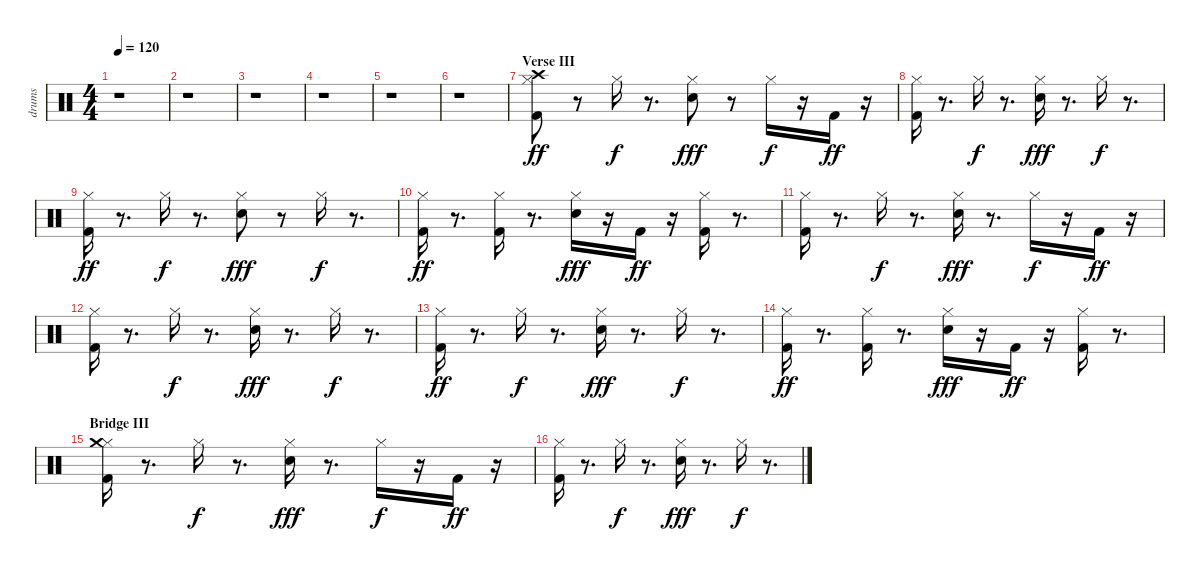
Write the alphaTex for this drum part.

\track ("drums" "drums") {instrument percussion}
\staff {score}
\articulation defaults
\ts (4 4)
\tempo 120
\clef neutral
\ks c
r.1{dy ff} |
r.1 |
r.1 |
r.1 |
r.1 |
r.1 |
\section ("" "Verse III")
("Kick (hit) 2" "Hi-Hat (closed)" "Crash high (hit)").8 r.8 "Hi-Hat (closed)".16{dy f} r.8{d} ("Snare (hit) 2" "Hi-Hat (closed)").8{dy fff} r.8 "Hi-Hat (closed)".16{dy f} r.16 "Kick (hit) 2".16{dy ff} r.16 |
("Kick (hit) 2" "Hi-Hat (closed)").16 r.8{d} "Hi-Hat (closed)".16{dy f} r.8{d} ("Snare (hit) 2" "Hi-Hat (closed)").16{dy fff} r.8{d} "Hi-Hat (closed)".16{dy f} r.8{d} |
("Kick (hit) 2" "Hi-Hat (closed)").16{dy ff} r.8{d} "Hi-Hat (closed)".16{dy f} r.8{d} ("Snare (hit) 2" "Hi-Hat (closed)").8{dy fff} r.8 "Hi-Hat (closed)".16{dy f} r.8{d} |
("Kick (hit) 2" "Hi-Hat (closed)").16{dy ff} r.8{d} ("Kick (hit) 2" "Hi-Hat (closed)").16 r.8{d} ("Snare (hit) 2" "Hi-Hat (closed)").16{dy fff} r.16 "Kick (hit) 2".16{dy ff} r.16 ("Kick (hit) 2" "Hi-Hat (closed)").16 r.8{d} |
("Kick (hit) 2" "Hi-Hat (closed)").16 r.8{d} "Hi-Hat (closed)".16{dy f} r.8{d} ("Snare (hit) 2" "Hi-Hat (closed)").16{dy fff} r.8{d} "Hi-Hat (closed)".16{dy f} r.16 "Kick (hit) 2".16{dy ff} r.16 |
("Kick (hit) 2" "Hi-Hat (closed)").16 r.8{d} "Hi-Hat (closed)".16{dy f} r.8{d} ("Snare (hit) 2" "Hi-Hat (closed)").16{dy fff} r.8{d} "Hi-Hat (closed)".16{dy f} r.8{d} |
("Kick (hit) 2" "Hi-Hat (closed)").16{dy ff} r.8{d} "Hi-Hat (closed)".16{dy f} r.8{d} ("Snare (hit) 2" "Hi-Hat (closed)").16{dy fff} r.8{d} "Hi-Hat (closed)".16{dy f} r.8{d} |
("Kick (hit) 2" "Hi-Hat (closed)").16{dy ff} r.8{d} ("Kick (hit) 2" "Hi-Hat (closed)").16 r.8{d} ("Snare (hit) 2" "Hi-Hat (closed)").16{dy fff} r.16 "Kick (hit) 2".16{dy ff} r.16 ("Kick (hit) 2" "Hi-Hat (closed)").16 r.8{d} |
\section ("" "Bridge III")
("Kick (hit) 2" "Hi-Hat (closed)" "Crash medium (hit)").16 r.8{d} "Hi-Hat (closed)".16{dy f} r.8{d} ("Snare (hit) 2" "Hi-Hat (closed)").16{dy fff} r.8{d} "Hi-Hat (closed)".16{dy f} r.16 "Kick (hit) 2".16{dy ff} r.16 |
("Kick (hit) 2" "Hi-Hat (closed)").16 r.8{d} "Hi-Hat (closed)".16{dy f} r.8{d} ("Snare (hit) 2" "Hi-Hat (closed)").16{dy fff} r.8{d} "Hi-Hat (closed)".16{dy f} r.8{d}
